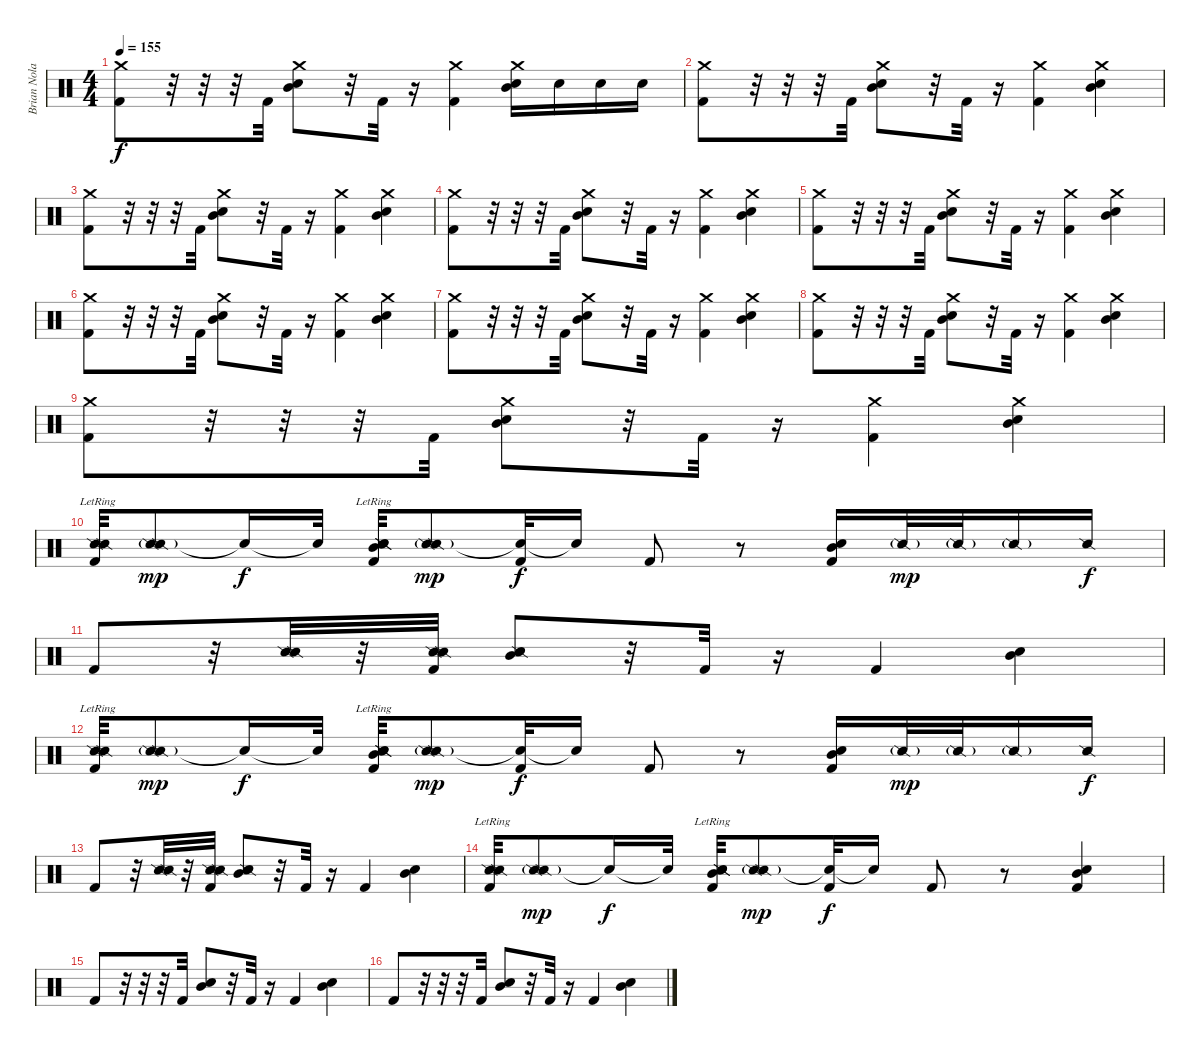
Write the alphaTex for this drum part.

\track ("Brian Nolan" "Brian Nola") {instrument percussion}
\staff {score}
\articulation defaults
\ts (4 4)
\tempo 155
\clef neutral
\ks c
("Crash medium (hit)" "Kick (hit) 2").8{dy f} r.32 r.32 r.32 "Kick (hit) 2".32 ("Snare (hit) 2" "Mid Tom (hit)" "Crash medium (hit)").8 r.32 "Kick (hit) 2".32 r.16 ("Crash medium (hit)" "Kick (hit) 2").4 ("Snare (hit) 2" "Mid Tom (hit)" "Crash medium (hit)").16 "Snare (hit) 2".16 "Snare (hit) 2".16 "Snare (hit) 2".16 |
("Crash medium (hit)" "Kick (hit) 2").8 r.32 r.32 r.32 "Kick (hit) 2".32 ("Snare (hit) 2" "Mid Tom (hit)" "Crash medium (hit)").8 r.32 "Kick (hit) 2".32 r.16 ("Crash medium (hit)" "Kick (hit) 2").4 ("Snare (hit) 2" "Mid Tom (hit)" "Crash medium (hit)").4 |
("Crash medium (hit)" "Kick (hit) 2").8 r.32 r.32 r.32 "Kick (hit) 2".32 ("Snare (hit) 2" "Mid Tom (hit)" "Crash medium (hit)").8 r.32 "Kick (hit) 2".32 r.16 ("Crash medium (hit)" "Kick (hit) 2").4 ("Snare (hit) 2" "Mid Tom (hit)" "Crash medium (hit)").4 |
("Crash medium (hit)" "Kick (hit) 2").8 r.32 r.32 r.32 "Kick (hit) 2".32 ("Snare (hit) 2" "Mid Tom (hit)" "Crash medium (hit)").8 r.32 "Kick (hit) 2".32 r.16 ("Crash medium (hit)" "Kick (hit) 2").4 ("Snare (hit) 2" "Mid Tom (hit)" "Crash medium (hit)").4 |
("Crash medium (hit)" "Kick (hit) 2").8 r.32 r.32 r.32 "Kick (hit) 2".32 ("Snare (hit) 2" "Mid Tom (hit)" "Crash medium (hit)").8 r.32 "Kick (hit) 2".32 r.16 ("Crash medium (hit)" "Kick (hit) 2").4 ("Snare (hit) 2" "Mid Tom (hit)" "Crash medium (hit)").4 |
("Crash medium (hit)" "Kick (hit) 2").8 r.32 r.32 r.32 "Kick (hit) 2".32 ("Snare (hit) 2" "Mid Tom (hit)" "Crash medium (hit)").8 r.32 "Kick (hit) 2".32 r.16 ("Crash medium (hit)" "Kick (hit) 2").4 ("Snare (hit) 2" "Mid Tom (hit)" "Crash medium (hit)").4 |
("Crash medium (hit)" "Kick (hit) 2").8 r.32 r.32 r.32 "Kick (hit) 2".32 ("Snare (hit) 2" "Mid Tom (hit)" "Crash medium (hit)").8 r.32 "Kick (hit) 2".32 r.16 ("Crash medium (hit)" "Kick (hit) 2").4 ("Snare (hit) 2" "Mid Tom (hit)" "Crash medium (hit)").4 |
("Crash medium (hit)" "Kick (hit) 2").8 r.32 r.32 r.32 "Kick (hit) 2".32 ("Snare (hit) 2" "Mid Tom (hit)" "Crash medium (hit)").8 r.32 "Kick (hit) 2".32 r.16 ("Crash medium (hit)" "Kick (hit) 2").4 ("Snare (hit) 2" "Mid Tom (hit)" "Crash medium (hit)").4 |
("Crash medium (hit)" "Kick (hit) 2").8 r.32 r.32 r.32 "Kick (hit) 2".32 ("Snare (hit) 2" "Mid Tom (hit)" "Crash medium (hit)").8 r.32 "Kick (hit) 2".32 r.16 ("Crash medium (hit)" "Kick (hit) 2").4 ("Snare (hit) 2" "Mid Tom (hit)" "Crash medium (hit)").4 |
("Snare (side stick) 2"{lr} "Snare (side stick) 2" "Kick (hit) 2").32 ("Snare (side stick) 2"{g} "Snare (side stick) 2").8{dy mp} "Snare (hit)"{t}.16{dy f} "Snare (hit)"{t}.32 ("Snare (side stick) 2" "Snare (side stick) 2" "Snare (hit) 2"{lr} "Mid Tom (hit)" "Kick (hit) 2").32 ("Snare (side stick) 2"{g} "Snare (side stick) 2").8{dy mp} ("Snare (hit)"{t} "Kick (hit) 2").32{dy f} "Snare (hit)"{t}.16 "Kick (hit) 2".8 r.8 ("Snare (hit) 2" "Mid Tom (hit)" "Kick (hit) 2").16 "Snare (side stick) 2"{g}.32{dy mp} "Snare (side stick) 2"{g}.32 "Snare (side stick) 2"{g}.16 "Snare (side stick) 2".16{dy f} |
"Kick (hit) 2".8 r.32 ("Snare (side stick) 2" "Snare (side stick) 2").32 r.32 ("Snare (side stick) 2" "Snare (side stick) 2" "Kick (hit) 2").32 ("Snare (hit) 2" "Mid Tom (hit)" "Snare (side stick) 2").8 r.32 "Kick (hit) 2".32 r.16 "Kick (hit) 2".4 ("Snare (hit) 2" "Mid Tom (hit)").4 |
("Snare (side stick) 2"{lr} "Snare (side stick) 2" "Kick (hit) 2").32 ("Snare (side stick) 2"{g} "Snare (side stick) 2").8{dy mp} "Snare (hit)"{t}.16{dy f} "Snare (hit)"{t}.32 ("Snare (side stick) 2" "Snare (side stick) 2" "Snare (hit) 2"{lr} "Mid Tom (hit)" "Kick (hit) 2").32 ("Snare (side stick) 2"{g} "Snare (side stick) 2").8{dy mp} ("Snare (hit)"{t} "Kick (hit) 2").32{dy f} "Snare (hit)"{t}.16 "Kick (hit) 2".8 r.8 ("Snare (hit) 2" "Mid Tom (hit)" "Kick (hit) 2").16 "Snare (side stick) 2"{g}.32{dy mp} "Snare (side stick) 2"{g}.32 "Snare (side stick) 2"{g}.16 "Snare (side stick) 2".16{dy f} |
"Kick (hit) 2".8 r.32 ("Snare (side stick) 2" "Snare (side stick) 2").32 r.32 ("Snare (side stick) 2" "Snare (side stick) 2" "Kick (hit) 2").32 ("Snare (hit) 2" "Mid Tom (hit)" "Snare (side stick) 2").8 r.32 "Kick (hit) 2".32 r.16 "Kick (hit) 2".4 ("Snare (hit) 2" "Mid Tom (hit)").4 |
("Snare (side stick) 2"{lr} "Snare (side stick) 2" "Kick (hit) 2").32 ("Snare (side stick) 2"{g} "Snare (side stick) 2").8{dy mp} "Snare (hit)"{t}.16{dy f} "Snare (hit)"{t}.32 ("Snare (side stick) 2" "Snare (side stick) 2" "Snare (hit) 2"{lr} "Mid Tom (hit)" "Kick (hit) 2").32 ("Snare (side stick) 2"{g} "Snare (side stick) 2").8{dy mp} ("Snare (hit)"{t} "Kick (hit) 2").32{dy f} "Snare (hit)"{t}.16 "Kick (hit) 2".8 r.8 ("Snare (hit) 2" "Mid Tom (hit)" "Kick (hit) 2").4 |
"Kick (hit) 2".8 r.32 r.32 r.32 "Kick (hit) 2".32 ("Snare (hit) 2" "Mid Tom (hit)").8 r.32 "Kick (hit) 2".32 r.16 "Kick (hit) 2".4 ("Snare (hit) 2" "Mid Tom (hit)").4 |
"Kick (hit) 2".8 r.32 r.32 r.32 "Kick (hit) 2".32 ("Snare (hit) 2" "Mid Tom (hit)").8 r.32 "Kick (hit) 2".32 r.16 "Kick (hit) 2".4 ("Snare (hit) 2" "Mid Tom (hit)").4
